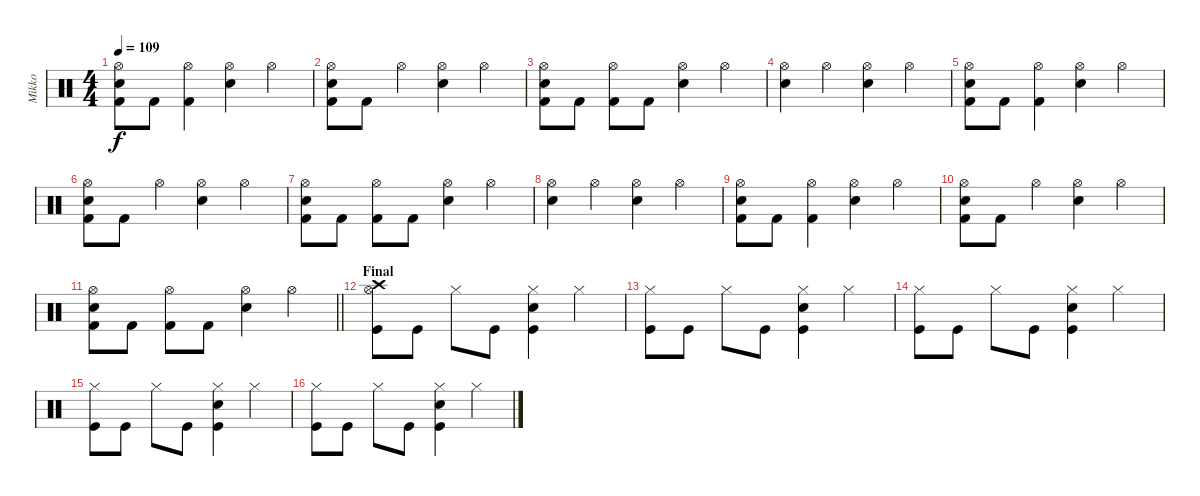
\track ("Mikko" "Mikko") {instrument percussion}
\staff {score}
\articulation defaults
\ts (4 4)
\tempo 109
\clef neutral
\ks c
("Hi-Hat (open)" "Snare (hit) 2" "Kick (hit) 2").8{dy f} "Kick (hit) 2".8 ("Hi-Hat (open)" "Kick (hit) 2").4 ("Hi-Hat (open)" "Snare (hit) 2").4 "Hi-Hat (open)".4 |
("Hi-Hat (open)" "Snare (hit) 2" "Kick (hit) 2").8 "Kick (hit) 2".8 "Hi-Hat (open)".4 ("Hi-Hat (open)" "Snare (hit) 2").4 "Hi-Hat (open)".4 |
("Hi-Hat (open)" "Snare (hit) 2" "Kick (hit) 2").8 "Kick (hit) 2".8 ("Hi-Hat (open)" "Kick (hit) 2").8 "Kick (hit) 2".8 ("Hi-Hat (open)" "Snare (hit) 2").4 "Hi-Hat (open)".4 |
("Hi-Hat (open)" "Snare (hit) 2").4 "Hi-Hat (open)".4 ("Hi-Hat (open)" "Snare (hit) 2").4 "Hi-Hat (open)".4 |
("Hi-Hat (open)" "Snare (hit) 2" "Kick (hit) 2").8 "Kick (hit) 2".8 ("Hi-Hat (open)" "Kick (hit) 2").4 ("Hi-Hat (open)" "Snare (hit) 2").4 "Hi-Hat (open)".4 |
("Hi-Hat (open)" "Snare (hit) 2" "Kick (hit) 2").8 "Kick (hit) 2".8 "Hi-Hat (open)".4 ("Hi-Hat (open)" "Snare (hit) 2").4 "Hi-Hat (open)".4 |
("Hi-Hat (open)" "Snare (hit) 2" "Kick (hit) 2").8 "Kick (hit) 2".8 ("Hi-Hat (open)" "Kick (hit) 2").8 "Kick (hit) 2".8 ("Hi-Hat (open)" "Snare (hit) 2").4 "Hi-Hat (open)".4 |
("Hi-Hat (open)" "Snare (hit) 2").4 "Hi-Hat (open)".4 ("Hi-Hat (open)" "Snare (hit) 2").4 "Hi-Hat (open)".4 |
("Hi-Hat (open)" "Snare (hit) 2" "Kick (hit) 2").8 "Kick (hit) 2".8 ("Hi-Hat (open)" "Kick (hit) 2").4 ("Hi-Hat (open)" "Snare (hit) 2").4 "Hi-Hat (open)".4 |
("Hi-Hat (open)" "Snare (hit) 2" "Kick (hit) 2").8 "Kick (hit) 2".8 "Hi-Hat (open)".4 ("Hi-Hat (open)" "Snare (hit) 2").4 "Hi-Hat (open)".4 |
\barLineRight lightlight
("Hi-Hat (open)" "Snare (hit) 2" "Kick (hit) 2").8 "Kick (hit) 2".8 ("Hi-Hat (open)" "Kick (hit) 2").8 "Kick (hit) 2".8 ("Hi-Hat (open)" "Snare (hit) 2").4 "Hi-Hat (open)".4 |
\section ("" "Final")
("Crash high (hit)" "Hi-Hat (open)" "Kick (hit)").8 "Kick (hit)".8 "Hi-Hat (closed)".8 "Kick (hit)".8 ("Hi-Hat (closed)" "Snare (hit) 2" "Kick (hit)").4 "Hi-Hat (closed)".4 |
("Hi-Hat (closed)" "Kick (hit)").8 "Kick (hit)".8 "Hi-Hat (closed)".8 "Kick (hit)".8 ("Hi-Hat (closed)" "Snare (hit) 2" "Kick (hit)").4 "Hi-Hat (closed)".4 |
("Hi-Hat (closed)" "Kick (hit)").8 "Kick (hit)".8 "Hi-Hat (closed)".8 "Kick (hit)".8 ("Hi-Hat (closed)" "Snare (hit) 2" "Kick (hit)").4 "Hi-Hat (closed)".4 |
("Hi-Hat (closed)" "Kick (hit)").8 "Kick (hit)".8 "Hi-Hat (closed)".8 "Kick (hit)".8 ("Hi-Hat (closed)" "Snare (hit) 2" "Kick (hit)").4 "Hi-Hat (closed)".4 |
("Hi-Hat (closed)" "Kick (hit)").8 "Kick (hit)".8 "Hi-Hat (closed)".8 "Kick (hit)".8 ("Hi-Hat (closed)" "Snare (hit) 2" "Kick (hit)").4 "Hi-Hat (closed)".4
